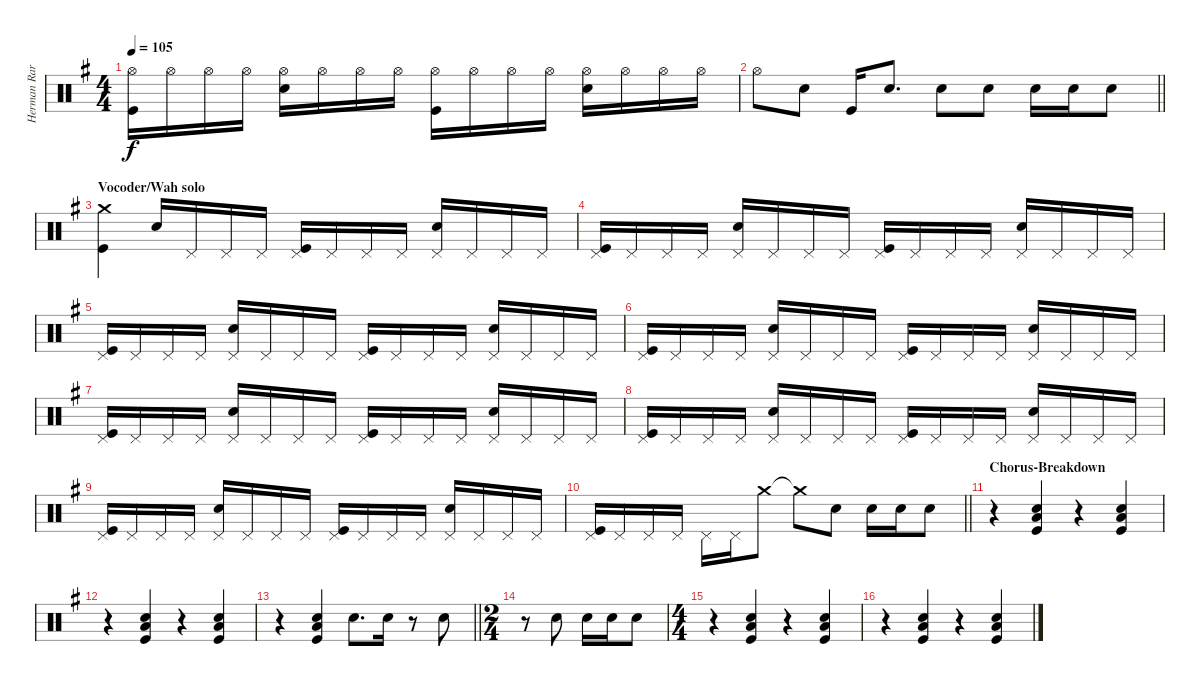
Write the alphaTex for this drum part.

\track ("Herman Rarebell" "Herman Rar") {instrument percussion}
\staff {score}
\articulation defaults
\ts (4 4)
\tempo 105
\clef neutral
\ks g
("Hi-Hat (open)" "Kick (hit)").16{dy f} "Hi-Hat (open)".16 "Hi-Hat (open)".16 "Hi-Hat (open)".16 ("Hi-Hat (open)" "Snare (hit) 2").16 "Hi-Hat (open)".16 "Hi-Hat (open)".16 "Hi-Hat (open)".16 ("Hi-Hat (open)" "Kick (hit)").16 "Hi-Hat (open)".16 "Hi-Hat (open)".16 "Hi-Hat (open)".16 ("Hi-Hat (open)" "Snare (hit) 2").16 "Hi-Hat (open)".16 "Hi-Hat (open)".16 "Hi-Hat (open)".16 |
\barLineRight lightlight "Hi-Hat (open)".8 "Snare (hit) 2".8 "Kick (hit)".16 "Snare (hit) 2".8{d} "Snare (hit) 2".8 "Snare (hit) 2".8 "Snare (hit) 2".16 "Snare (hit) 2".16 "Snare (hit) 2".8
|
\section ("" "Vocoder/Wah solo")
("Crash medium (hit)" "Kick (hit)").4 "Snare (hit) 2".16 "Pedal Hi-Hat (hit)".16 "Pedal Hi-Hat (hit)".16 "Pedal Hi-Hat (hit)".16 ("Pedal Hi-Hat (hit)" "Kick (hit)").16 "Pedal Hi-Hat (hit)".16 "Pedal Hi-Hat (hit)".16 "Pedal Hi-Hat (hit)".16 ("Pedal Hi-Hat (hit)" "Snare (hit) 2").16 "Pedal Hi-Hat (hit)".16 "Pedal Hi-Hat (hit)".16 "Pedal Hi-Hat (hit)".16 |
("Pedal Hi-Hat (hit)" "Kick (hit)").16 "Pedal Hi-Hat (hit)".16 "Pedal Hi-Hat (hit)".16 "Pedal Hi-Hat (hit)".16 ("Pedal Hi-Hat (hit)" "Snare (hit) 2").16 "Pedal Hi-Hat (hit)".16 "Pedal Hi-Hat (hit)".16 "Pedal Hi-Hat (hit)".16 ("Pedal Hi-Hat (hit)" "Kick (hit)").16 "Pedal Hi-Hat (hit)".16 "Pedal Hi-Hat (hit)".16 "Pedal Hi-Hat (hit)".16 ("Pedal Hi-Hat (hit)" "Snare (hit) 2").16 "Pedal Hi-Hat (hit)".16 "Pedal Hi-Hat (hit)".16 "Pedal Hi-Hat (hit)".16 |
("Pedal Hi-Hat (hit)" "Kick (hit)").16 "Pedal Hi-Hat (hit)".16 "Pedal Hi-Hat (hit)".16 "Pedal Hi-Hat (hit)".16 ("Pedal Hi-Hat (hit)" "Snare (hit) 2").16 "Pedal Hi-Hat (hit)".16 "Pedal Hi-Hat (hit)".16 "Pedal Hi-Hat (hit)".16 ("Pedal Hi-Hat (hit)" "Kick (hit)").16 "Pedal Hi-Hat (hit)".16 "Pedal Hi-Hat (hit)".16 "Pedal Hi-Hat (hit)".16 ("Pedal Hi-Hat (hit)" "Snare (hit) 2").16 "Pedal Hi-Hat (hit)".16 "Pedal Hi-Hat (hit)".16 "Pedal Hi-Hat (hit)".16 |
("Pedal Hi-Hat (hit)" "Kick (hit)").16 "Pedal Hi-Hat (hit)".16 "Pedal Hi-Hat (hit)".16 "Pedal Hi-Hat (hit)".16 ("Pedal Hi-Hat (hit)" "Snare (hit) 2").16 "Pedal Hi-Hat (hit)".16 "Pedal Hi-Hat (hit)".16 "Pedal Hi-Hat (hit)".16 ("Pedal Hi-Hat (hit)" "Kick (hit)").16 "Pedal Hi-Hat (hit)".16 "Pedal Hi-Hat (hit)".16 "Pedal Hi-Hat (hit)".16 ("Pedal Hi-Hat (hit)" "Snare (hit) 2").16 "Pedal Hi-Hat (hit)".16 "Pedal Hi-Hat (hit)".16 "Pedal Hi-Hat (hit)".16 |
("Pedal Hi-Hat (hit)" "Kick (hit)").16 "Pedal Hi-Hat (hit)".16 "Pedal Hi-Hat (hit)".16 "Pedal Hi-Hat (hit)".16 ("Pedal Hi-Hat (hit)" "Snare (hit) 2").16 "Pedal Hi-Hat (hit)".16 "Pedal Hi-Hat (hit)".16 "Pedal Hi-Hat (hit)".16 ("Pedal Hi-Hat (hit)" "Kick (hit)").16 "Pedal Hi-Hat (hit)".16 "Pedal Hi-Hat (hit)".16 "Pedal Hi-Hat (hit)".16 ("Pedal Hi-Hat (hit)" "Snare (hit) 2").16 "Pedal Hi-Hat (hit)".16 "Pedal Hi-Hat (hit)".16 "Pedal Hi-Hat (hit)".16 |
("Pedal Hi-Hat (hit)" "Kick (hit)").16 "Pedal Hi-Hat (hit)".16 "Pedal Hi-Hat (hit)".16 "Pedal Hi-Hat (hit)".16 ("Pedal Hi-Hat (hit)" "Snare (hit) 2").16 "Pedal Hi-Hat (hit)".16 "Pedal Hi-Hat (hit)".16 "Pedal Hi-Hat (hit)".16 ("Pedal Hi-Hat (hit)" "Kick (hit)").16 "Pedal Hi-Hat (hit)".16 "Pedal Hi-Hat (hit)".16 "Pedal Hi-Hat (hit)".16 ("Pedal Hi-Hat (hit)" "Snare (hit) 2").16 "Pedal Hi-Hat (hit)".16 "Pedal Hi-Hat (hit)".16 "Pedal Hi-Hat (hit)".16 |
("Pedal Hi-Hat (hit)" "Kick (hit)").16 "Pedal Hi-Hat (hit)".16 "Pedal Hi-Hat (hit)".16 "Pedal Hi-Hat (hit)".16 ("Pedal Hi-Hat (hit)" "Snare (hit) 2").16 "Pedal Hi-Hat (hit)".16 "Pedal Hi-Hat (hit)".16 "Pedal Hi-Hat (hit)".16 ("Pedal Hi-Hat (hit)" "Kick (hit)").16 "Pedal Hi-Hat (hit)".16 "Pedal Hi-Hat (hit)".16 "Pedal Hi-Hat (hit)".16 ("Pedal Hi-Hat (hit)" "Snare (hit) 2").16 "Pedal Hi-Hat (hit)".16 "Pedal Hi-Hat (hit)".16 "Pedal Hi-Hat (hit)".16 |
\barLineRight lightlight
("Pedal Hi-Hat (hit)" "Kick (hit)").16 "Pedal Hi-Hat (hit)".16 "Pedal Hi-Hat (hit)".16 "Pedal Hi-Hat (hit)".16 "Pedal Hi-Hat (hit)".16 "Pedal Hi-Hat (hit)".16 "Crash medium (hit)".8 "Crash medium (hit)"{t}.8 "Snare (hit) 2".8 "Snare (hit) 2".16 "Snare (hit) 2".16 "Snare (hit) 2".8 |
\section ("" "Chorus-Breakdown")
r.4 ("Snare (hit) 2" "Low Floor Tom (hit)" "Kick (hit)").4 r.4 ("Snare (hit) 2" "Low Floor Tom (hit)" "Kick (hit)").4 |
r.4 ("Snare (hit) 2" "Low Floor Tom (hit)" "Kick (hit)").4 r.4 ("Snare (hit) 2" "Low Floor Tom (hit)" "Kick (hit)").4 |
\barLineRight lightlight
r.4 ("Snare (hit) 2" "Low Floor Tom (hit)" "Kick (hit)").4 "Snare (hit) 2".8{d} "Snare (hit) 2".16 r.8 "Snare (hit) 2".8 |
\ts (2 4)
r.8 "Snare (hit) 2".8 "Snare (hit) 2".16 "Snare (hit) 2".16 "Snare (hit) 2".8 |
\ts (4 4)
r.4 ("Snare (hit) 2" "Low Floor Tom (hit)" "Kick (hit)").4 r.4 ("Snare (hit) 2" "Low Floor Tom (hit)" "Kick (hit)").4 |
r.4 ("Snare (hit) 2" "Low Floor Tom (hit)" "Kick (hit)").4 r.4 ("Snare (hit) 2" "Low Floor Tom (hit)" "Kick (hit)").4
